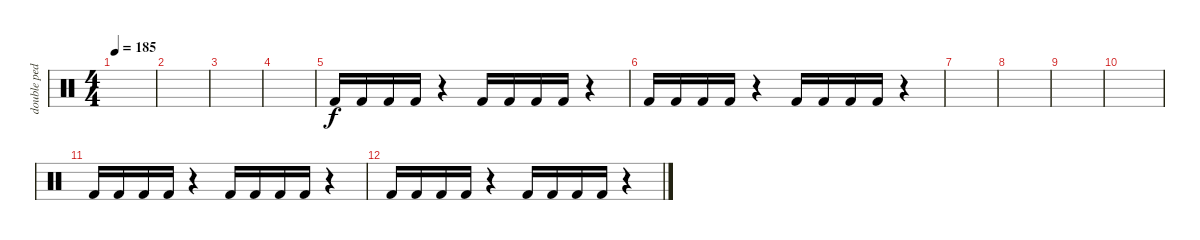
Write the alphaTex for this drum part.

\track ("double pedale" "double ped") {instrument percussion}
\staff {score}
\articulation defaults
\ts (4 4)
\tempo 185
\clef neutral
\ks c
|
|
|
|
"Kick (hit) 2".16 "Kick (hit) 2".16 "Kick (hit) 2".16 "Kick (hit) 2".16 r.4 "Kick (hit) 2".16 "Kick (hit) 2".16 "Kick (hit) 2".16 "Kick (hit) 2".16 r.4 |
"Kick (hit) 2".16 "Kick (hit) 2".16 "Kick (hit) 2".16 "Kick (hit) 2".16 r.4 "Kick (hit) 2".16 "Kick (hit) 2".16 "Kick (hit) 2".16 "Kick (hit) 2".16 r.4 |
|
|
|
|
"Kick (hit) 2".16 "Kick (hit) 2".16 "Kick (hit) 2".16 "Kick (hit) 2".16 r.4 "Kick (hit) 2".16 "Kick (hit) 2".16 "Kick (hit) 2".16 "Kick (hit) 2".16 r.4 |
"Kick (hit) 2".16 "Kick (hit) 2".16 "Kick (hit) 2".16 "Kick (hit) 2".16 r.4 "Kick (hit) 2".16 "Kick (hit) 2".16 "Kick (hit) 2".16 "Kick (hit) 2".16 r.4
